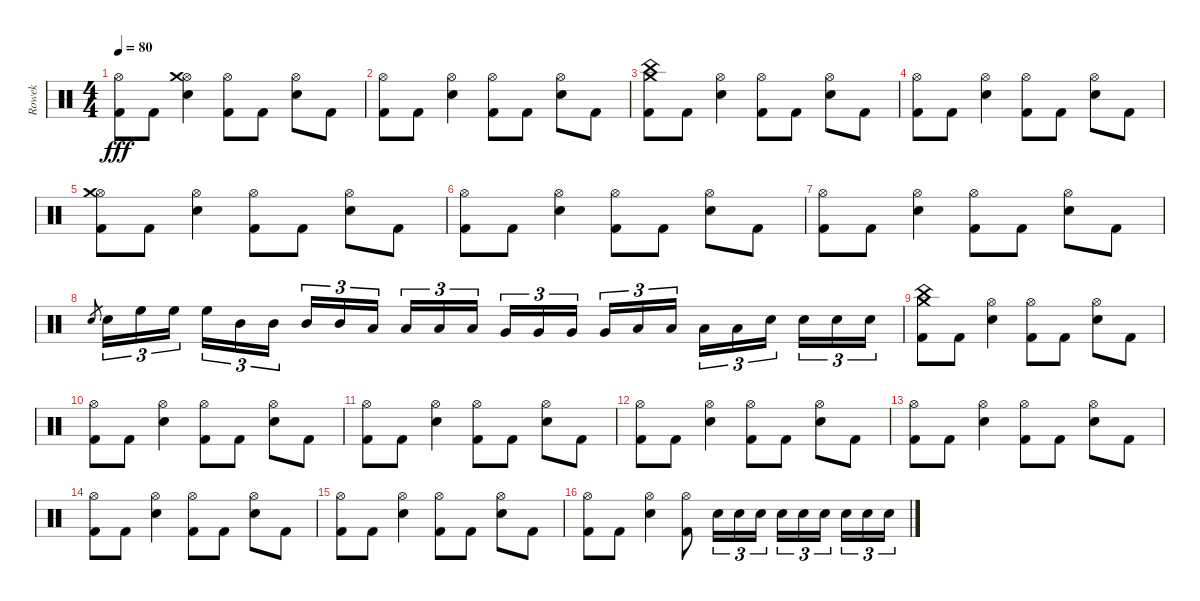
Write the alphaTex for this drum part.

\track ("Rowek" "Rowek") {instrument percussion}
\staff {score}
\articulation defaults
\ts (4 4)
\tempo 80
\clef neutral
\ks c
("Hi-Hat (open)" "Kick (hit) 2").8{dy fff} "Kick (hit) 2".8 ("Hi-Hat (open)" "Crash medium (hit)" "Electric Snare (hit)").4 ("Hi-Hat (open)" "Kick (hit) 2").8 "Kick (hit) 2".8 ("Hi-Hat (open)" "Electric Snare (hit)").8 "Kick (hit) 2".8 |
("Hi-Hat (open)" "Kick (hit) 2").8 "Kick (hit) 2".8 ("Hi-Hat (open)" "Electric Snare (hit)").4 ("Hi-Hat (open)" "Kick (hit) 2").8 "Kick (hit) 2".8 ("Hi-Hat (open)" "Electric Snare (hit)").8 "Kick (hit) 2".8 |
("Crash medium (hit)" "China (hit)" "Kick (hit) 2").8 "Kick (hit) 2".8 ("Hi-Hat (open)" "Electric Snare (hit)").4 ("Hi-Hat (open)" "Kick (hit) 2").8 "Kick (hit) 2".8 ("Hi-Hat (open)" "Electric Snare (hit)").8 "Kick (hit) 2".8 |
("Hi-Hat (open)" "Kick (hit) 2").8 "Kick (hit) 2".8 ("Hi-Hat (open)" "Electric Snare (hit)").4 ("Hi-Hat (open)" "Kick (hit) 2").8 "Kick (hit) 2".8 ("Hi-Hat (open)" "Electric Snare (hit)").8 "Kick (hit) 2".8 |
("Hi-Hat (open)" "Crash medium (hit)" "Kick (hit) 2").8 "Kick (hit) 2".8 ("Hi-Hat (open)" "Electric Snare (hit)").4 ("Hi-Hat (open)" "Kick (hit) 2").8 "Kick (hit) 2".8 ("Hi-Hat (open)" "Electric Snare (hit)").8 "Kick (hit) 2".8 |
("Hi-Hat (open)" "Kick (hit) 2").8 "Kick (hit) 2".8 ("Hi-Hat (open)" "Electric Snare (hit)").4 ("Hi-Hat (open)" "Kick (hit) 2").8 "Kick (hit) 2".8 ("Hi-Hat (open)" "Electric Snare (hit)").8 "Kick (hit) 2".8 |
("Hi-Hat (open)" "Kick (hit) 2").8 "Kick (hit) 2".8 ("Hi-Hat (open)" "Electric Snare (hit)").4 ("Hi-Hat (open)" "Kick (hit) 2").8 "Kick (hit) 2".8 ("Hi-Hat (open)" "Electric Snare (hit)").8 "Kick (hit) 2".8 |
"Electric Snare (hit)".8{gr} "Electric Snare (hit)".16{tu (3 2)} "High Floor Tom (hit)".16{tu (3 2)} "High Floor Tom (hit)".16{tu (3 2) beam splitsecondary} "High Floor Tom (hit)".16{tu (3 2)} "Mid Tom (hit)".16{tu (3 2)} "Mid Tom (hit)".16{tu (3 2)} "Mid Tom (hit)".16{tu (3 2)} "Mid Tom (hit)".16{tu (3 2)} "Low Tom (hit)".16{tu (3 2) beam splitsecondary} "Low Tom (hit)".16{tu (3 2)} "Low Tom (hit)".16{tu (3 2)} "Low Tom (hit)".16{tu (3 2)} "Very Low Tom (hit)".16{tu (3 2)} "Very Low Tom (hit)".16{tu (3 2)} "Very Low Tom (hit)".16{tu (3 2) beam splitsecondary} "Very Low Tom (hit)".16{tu (3 2)} "Low Floor Tom (hit)".16{tu (3 2)} "Low Floor Tom (hit)".16{tu (3 2)} "Low Floor Tom (hit)".16{tu (3 2)} "Low Floor Tom (hit)".16{tu (3 2)} "Electric Snare (hit)".16{tu (3 2) beam splitsecondary} "Electric Snare (hit)".16{tu (3 2)} "Electric Snare (hit)".16{tu (3 2)} "Electric Snare (hit)".16{tu (3 2)} |
("Crash medium (hit)" "China (hit)" "Kick (hit) 2").8 "Kick (hit) 2".8 ("Hi-Hat (open)" "Electric Snare (hit)").4 ("Hi-Hat (open)" "Kick (hit) 2").8 "Kick (hit) 2".8 ("Hi-Hat (open)" "Electric Snare (hit)").8 "Kick (hit) 2".8 |
("Hi-Hat (open)" "Kick (hit) 2").8 "Kick (hit) 2".8 ("Hi-Hat (open)" "Electric Snare (hit)").4 ("Hi-Hat (open)" "Kick (hit) 2").8 "Kick (hit) 2".8 ("Hi-Hat (open)" "Electric Snare (hit)").8 "Kick (hit) 2".8 |
("Hi-Hat (open)" "Kick (hit) 2").8 "Kick (hit) 2".8 ("Hi-Hat (open)" "Electric Snare (hit)").4 ("Hi-Hat (open)" "Kick (hit) 2").8 "Kick (hit) 2".8 ("Hi-Hat (open)" "Electric Snare (hit)").8 "Kick (hit) 2".8 |
("Hi-Hat (open)" "Kick (hit) 2").8 "Kick (hit) 2".8 ("Hi-Hat (open)" "Electric Snare (hit)").4 ("Hi-Hat (open)" "Kick (hit) 2").8 "Kick (hit) 2".8 ("Hi-Hat (open)" "Electric Snare (hit)").8 "Kick (hit) 2".8 |
("Hi-Hat (open)" "Kick (hit) 2").8 "Kick (hit) 2".8 ("Hi-Hat (open)" "Electric Snare (hit)").4 ("Hi-Hat (open)" "Kick (hit) 2").8 "Kick (hit) 2".8 ("Hi-Hat (open)" "Electric Snare (hit)").8 "Kick (hit) 2".8 |
("Hi-Hat (open)" "Kick (hit) 2").8 "Kick (hit) 2".8 ("Hi-Hat (open)" "Electric Snare (hit)").4 ("Hi-Hat (open)" "Kick (hit) 2").8 "Kick (hit) 2".8 ("Hi-Hat (open)" "Electric Snare (hit)").8 "Kick (hit) 2".8 |
("Hi-Hat (open)" "Kick (hit) 2").8 "Kick (hit) 2".8 ("Hi-Hat (open)" "Electric Snare (hit)").4 ("Hi-Hat (open)" "Kick (hit) 2").8 "Kick (hit) 2".8 ("Hi-Hat (open)" "Electric Snare (hit)").8 "Kick (hit) 2".8 |
("Hi-Hat (open)" "Kick (hit) 2").8 "Kick (hit) 2".8 ("Hi-Hat (open)" "Electric Snare (hit)").4 ("Hi-Hat (open)" "Kick (hit) 2").8 "Electric Snare (hit)".16{tu (3 2)} "Electric Snare (hit)".16{tu (3 2)} "Electric Snare (hit)".16{tu (3 2)} "Electric Snare (hit)".16{tu (3 2)} "Electric Snare (hit)".16{tu (3 2)} "Electric Snare (hit)".16{tu (3 2) beam splitsecondary} "Electric Snare (hit)".16{tu (3 2)} "Electric Snare (hit)".16{tu (3 2)} "Electric Snare (hit)".16{tu (3 2)}
